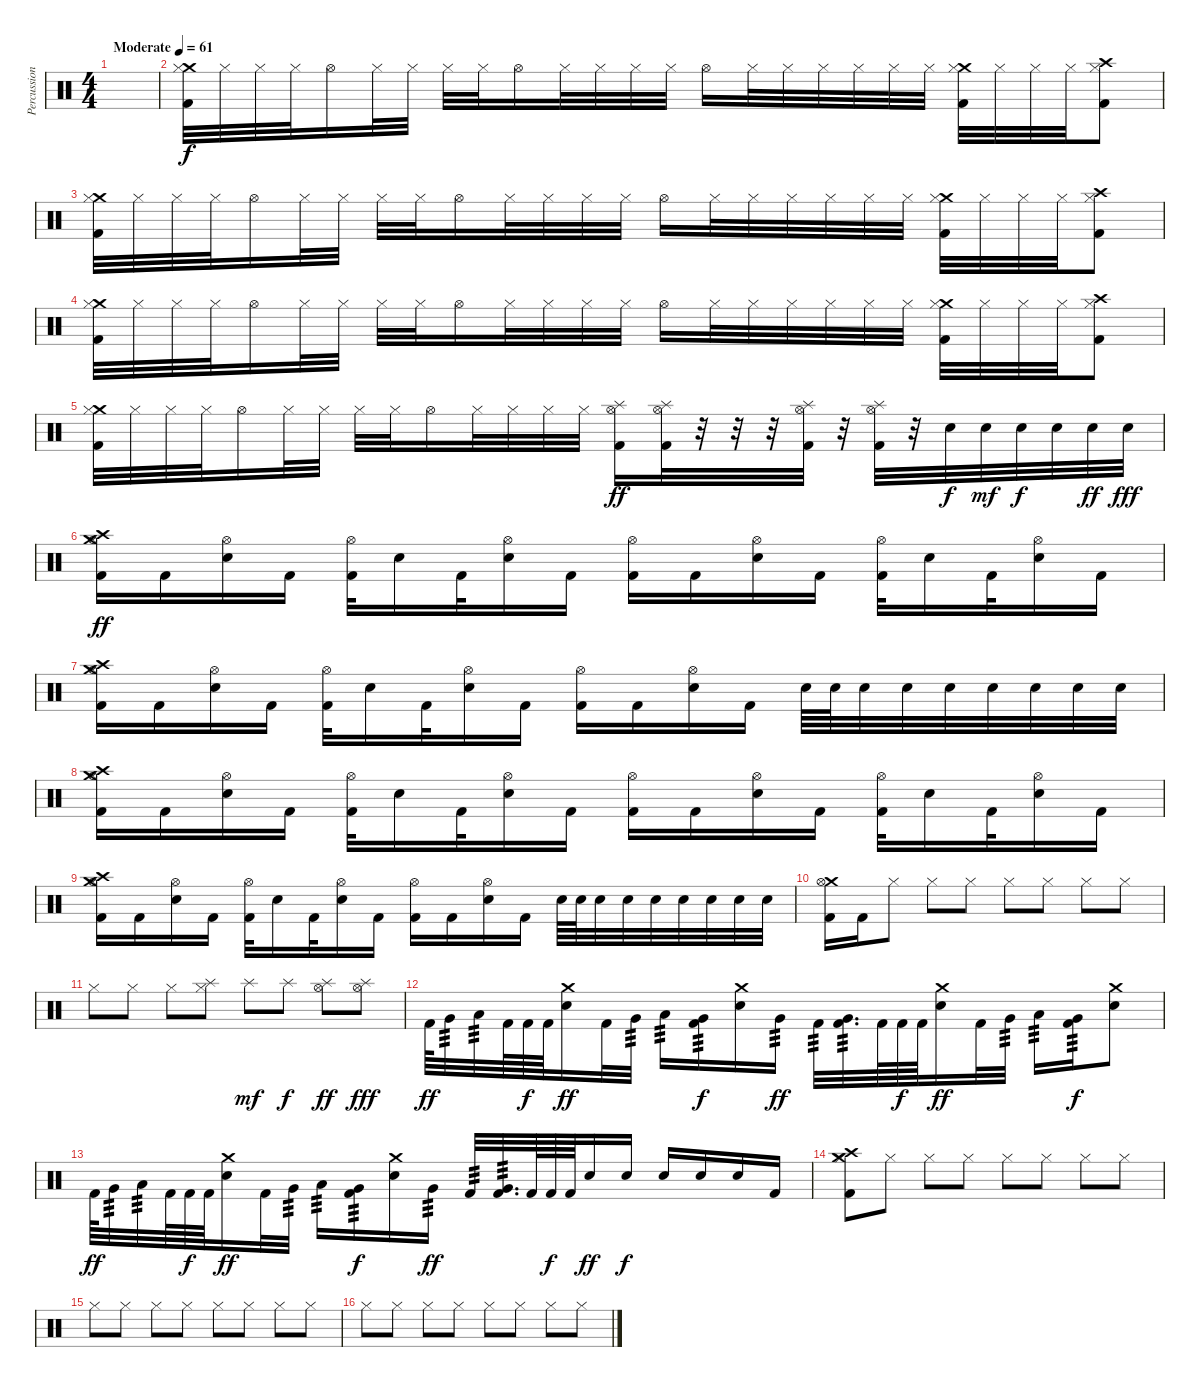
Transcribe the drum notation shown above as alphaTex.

\track ("Percussion" "Percussion") {solo instrument percussion}
\staff {score}
\articulation defaults
\ts (4 4)
\tempo (61 "Moderate")
\clef neutral
\ks c
|
("Crash medium (hit)" "Hi-Hat (closed)" "Kick (hit) 2").32 "Hi-Hat (closed)".32 "Hi-Hat (closed)".32 "Hi-Hat (closed)".32 "Hi-Hat (open)".16 "Hi-Hat (closed)".32 "Hi-Hat (closed)".32 "Hi-Hat (closed)".32 "Hi-Hat (closed)".32 "Hi-Hat (open)".16 "Hi-Hat (closed)".32 "Hi-Hat (closed)".32 "Hi-Hat (closed)".32 "Hi-Hat (closed)".32 "Hi-Hat (open)".16 "Hi-Hat (closed)".32 "Hi-Hat (closed)".32 "Hi-Hat (closed)".32 "Hi-Hat (closed)".32 "Hi-Hat (closed)".32 "Hi-Hat (closed)".32 ("Crash medium (hit)" "Hi-Hat (closed)" "Kick (hit) 2").32 "Hi-Hat (closed)".32 "Hi-Hat (closed)".32 "Hi-Hat (closed)".32 ("Crash high (hit)" "Hi-Hat (closed)" "Kick (hit) 2").8 |
("Crash medium (hit)" "Hi-Hat (closed)" "Kick (hit) 2").32 "Hi-Hat (closed)".32 "Hi-Hat (closed)".32 "Hi-Hat (closed)".32 "Hi-Hat (open)".16 "Hi-Hat (closed)".32 "Hi-Hat (closed)".32 "Hi-Hat (closed)".32 "Hi-Hat (closed)".32 "Hi-Hat (open)".16 "Hi-Hat (closed)".32 "Hi-Hat (closed)".32 "Hi-Hat (closed)".32 "Hi-Hat (closed)".32 "Hi-Hat (open)".16 "Hi-Hat (closed)".32 "Hi-Hat (closed)".32 "Hi-Hat (closed)".32 "Hi-Hat (closed)".32 "Hi-Hat (closed)".32 "Hi-Hat (closed)".32 ("Crash medium (hit)" "Hi-Hat (closed)" "Kick (hit) 2").32 "Hi-Hat (closed)".32 "Hi-Hat (closed)".32 "Hi-Hat (closed)".32 ("Crash high (hit)" "Hi-Hat (closed)" "Kick (hit) 2").8 |
("Crash medium (hit)" "Hi-Hat (closed)" "Kick (hit) 2").32 "Hi-Hat (closed)".32 "Hi-Hat (closed)".32 "Hi-Hat (closed)".32 "Hi-Hat (open)".16 "Hi-Hat (closed)".32 "Hi-Hat (closed)".32 "Hi-Hat (closed)".32 "Hi-Hat (closed)".32 "Hi-Hat (open)".16 "Hi-Hat (closed)".32 "Hi-Hat (closed)".32 "Hi-Hat (closed)".32 "Hi-Hat (closed)".32 "Hi-Hat (open)".16 "Hi-Hat (closed)".32 "Hi-Hat (closed)".32 "Hi-Hat (closed)".32 "Hi-Hat (closed)".32 "Hi-Hat (closed)".32 "Hi-Hat (closed)".32 ("Crash medium (hit)" "Hi-Hat (closed)" "Kick (hit) 2").32 "Hi-Hat (closed)".32 "Hi-Hat (closed)".32 "Hi-Hat (closed)".32 ("Crash high (hit)" "Hi-Hat (closed)" "Kick (hit) 2").8 |
("Crash medium (hit)" "Hi-Hat (closed)" "Kick (hit) 2").32 "Hi-Hat (closed)".32 "Hi-Hat (closed)".32 "Hi-Hat (closed)".32 "Hi-Hat (open)".16 "Hi-Hat (closed)".32 "Hi-Hat (closed)".32 "Hi-Hat (closed)".32 "Hi-Hat (closed)".32 "Hi-Hat (open)".16 "Hi-Hat (closed)".32 "Hi-Hat (closed)".32 "Hi-Hat (closed)".32 "Hi-Hat (closed)".32 ("Splash (hit)" "Hi-Hat (open)" "Kick (hit) 2").16{dy ff} ("Splash (hit)" "Hi-Hat (open)" "Kick (hit) 2").32 r.32 r.32 r.32 ("Splash (hit)" "Hi-Hat (open)" "Kick (hit) 2").32 r.32 ("Splash (hit)" "Hi-Hat (open)" "Kick (hit) 2").32 r.32 "Electric Snare (hit)".32{dy f} "Electric Snare (hit)".32{dy mf} "Electric Snare (hit)".32{dy f} "Electric Snare (hit)".32 "Electric Snare (hit)".32{dy ff} "Electric Snare (hit)".32{dy fff} |
("Crash medium (hit)" "Hi-Hat (open)" "Crash high (hit)" "Kick (hit) 2").16{dy ff} "Kick (hit) 2".16 ("Hi-Hat (open)" "Electric Snare (hit)").16 "Kick (hit) 2".16 ("Hi-Hat (open)" "Kick (hit) 2").32 "Electric Snare (hit)".16 "Kick (hit) 2".32 ("Hi-Hat (open)" "Electric Snare (hit)").16 "Kick (hit) 2".16 ("Hi-Hat (open)" "Kick (hit) 2").16 "Kick (hit) 2".16 ("Hi-Hat (open)" "Electric Snare (hit)").16 "Kick (hit) 2".16 ("Hi-Hat (open)" "Kick (hit) 2").32 "Electric Snare (hit)".16 "Kick (hit) 2".32 ("Hi-Hat (open)" "Electric Snare (hit)").16 "Kick (hit) 2".16 |
("Crash medium (hit)" "Hi-Hat (open)" "Crash high (hit)" "Kick (hit) 2").16 "Kick (hit) 2".16 ("Hi-Hat (open)" "Electric Snare (hit)").16 "Kick (hit) 2".16 ("Hi-Hat (open)" "Kick (hit) 2").32 "Electric Snare (hit)".16 "Kick (hit) 2".32 ("Hi-Hat (open)" "Electric Snare (hit)").16 "Kick (hit) 2".16 ("Hi-Hat (open)" "Kick (hit) 2").16 "Kick (hit) 2".16 ("Hi-Hat (open)" "Electric Snare (hit)").16 "Kick (hit) 2".16 "Electric Snare (hit)".64 "Electric Snare (hit)".64 "Electric Snare (hit)".32 "Electric Snare (hit)".32 "Electric Snare (hit)".32 "Electric Snare (hit)".32 "Electric Snare (hit)".32 "Electric Snare (hit)".32 "Electric Snare (hit)".32 |
("Crash medium (hit)" "Hi-Hat (open)" "Crash high (hit)" "Kick (hit) 2").16 "Kick (hit) 2".16 ("Hi-Hat (open)" "Electric Snare (hit)").16 "Kick (hit) 2".16 ("Hi-Hat (open)" "Kick (hit) 2").32 "Electric Snare (hit)".16 "Kick (hit) 2".32 ("Hi-Hat (open)" "Electric Snare (hit)").16 "Kick (hit) 2".16 ("Hi-Hat (open)" "Kick (hit) 2").16 "Kick (hit) 2".16 ("Hi-Hat (open)" "Electric Snare (hit)").16 "Kick (hit) 2".16 ("Hi-Hat (open)" "Kick (hit) 2").32 "Electric Snare (hit)".16 "Kick (hit) 2".32 ("Hi-Hat (open)" "Electric Snare (hit)").16 "Kick (hit) 2".16 |
("Crash medium (hit)" "Hi-Hat (open)" "Crash high (hit)" "Kick (hit) 2").16 "Kick (hit) 2".16 ("Hi-Hat (open)" "Electric Snare (hit)").16 "Kick (hit) 2".16 ("Hi-Hat (open)" "Kick (hit) 2").32 "Electric Snare (hit)".16 "Kick (hit) 2".32 ("Hi-Hat (open)" "Electric Snare (hit)").16 "Kick (hit) 2".16 ("Hi-Hat (open)" "Kick (hit) 2").16 "Kick (hit) 2".16 ("Hi-Hat (open)" "Electric Snare (hit)").16 "Kick (hit) 2".16 "Electric Snare (hit)".64 "Electric Snare (hit)".64 "Electric Snare (hit)".32 "Electric Snare (hit)".32 "Electric Snare (hit)".32 "Electric Snare (hit)".32 "Electric Snare (hit)".32 "Electric Snare (hit)".32 "Electric Snare (hit)".32 |
("Crash medium (hit)" "Hi-Hat (open)" "Kick (hit) 2").16 "Kick (hit) 2".16 "Hi-Hat (closed)".8 "Hi-Hat (closed)".8 "Hi-Hat (closed)".8 "Hi-Hat (closed)".8 "Hi-Hat (closed)".8 "Hi-Hat (closed)".8 "Hi-Hat (closed)".8 |
"Hi-Hat (closed)".8 "Hi-Hat (closed)".8 "Hi-Hat (closed)".8 ("Splash (hit)" "Hi-Hat (closed)").8 "Splash (hit)".8{dy mf} "Splash (hit)".8{dy f} ("Splash (hit)" "Hi-Hat (open)").8{dy ff} ("Splash (hit)" "Hi-Hat (open)").8{dy fff} |
"Kick (hit) 2".64{dy ff} "Very Low Tom (hit)".32{tp 3} "Low Tom (hit)".32{tp 3} "Kick (hit) 2".64 "Kick (hit) 2".64{dy f} "Kick (hit) 2".64 ("Crash medium (hit)" "Electric Snare (hit)").16{dy ff} "Kick (hit) 2".32 "Very Low Tom (hit)".32{tp 3} "Low Tom (hit)".16{tp 3} ("Kick (hit) 2" "Very Low Tom (hit)").16{tp 3 dy f} ("Crash medium (hit)" "Electric Snare (hit)").16 "Very Low Tom (hit)".16{tp 3 dy ff} "Kick (hit) 2".32{tp 3} ("Kick (hit) 2" "Very Low Tom (hit)").32{d tp 3} "Kick (hit) 2".64 "Kick (hit) 2".64{dy f} "Kick (hit) 2".64 ("Crash medium (hit)" "Electric Snare (hit)").16{dy ff} "Kick (hit) 2".32 "Very Low Tom (hit)".32{tp 3} "Low Tom (hit)".16{tp 3} ("Kick (hit) 2" "Very Low Tom (hit)").16{tp 3 dy f} ("Crash medium (hit)" "Electric Snare (hit)").8 |
"Kick (hit) 2".64{dy ff} "Very Low Tom (hit)".32{tp 3} "Low Tom (hit)".32{tp 3} "Kick (hit) 2".64 "Kick (hit) 2".64{dy f} "Kick (hit) 2".64 ("Crash medium (hit)" "Electric Snare (hit)").16{dy ff} "Kick (hit) 2".32 "Very Low Tom (hit)".32{tp 3} "Low Tom (hit)".16{tp 3} ("Kick (hit) 2" "Very Low Tom (hit)").16{tp 3 dy f} ("Crash medium (hit)" "Electric Snare (hit)").16 "Very Low Tom (hit)".16{tp 3 dy ff} "Kick (hit) 2".32{tp 3} ("Kick (hit) 2" "Very Low Tom (hit)").32{d tp 3} "Kick (hit) 2".64 "Kick (hit) 2".64{dy f} "Kick (hit) 2".64 "Electric Snare (hit)".16{dy ff} "Electric Snare (hit)".16{dy f} "Electric Snare (hit)".16 "Electric Snare (hit)".16 "Electric Snare (hit)".16 "Kick (hit) 2".16 |
("Crash medium (hit)" "Crash high (hit)" "Hi-Hat (closed)" "Kick (hit) 2").8 "Hi-Hat (closed)".8 "Hi-Hat (closed)".8 "Hi-Hat (closed)".8 "Hi-Hat (closed)".8 "Hi-Hat (closed)".8 "Hi-Hat (closed)".8 "Hi-Hat (closed)".8 |
"Hi-Hat (closed)".8 "Hi-Hat (closed)".8 "Hi-Hat (closed)".8 "Hi-Hat (closed)".8 "Hi-Hat (closed)".8 "Hi-Hat (closed)".8 "Hi-Hat (closed)".8 "Hi-Hat (closed)".8 |
"Hi-Hat (closed)".8 "Hi-Hat (closed)".8 "Hi-Hat (closed)".8 "Hi-Hat (closed)".8 "Hi-Hat (closed)".8 "Hi-Hat (closed)".8 "Hi-Hat (closed)".8 "Hi-Hat (closed)".8
